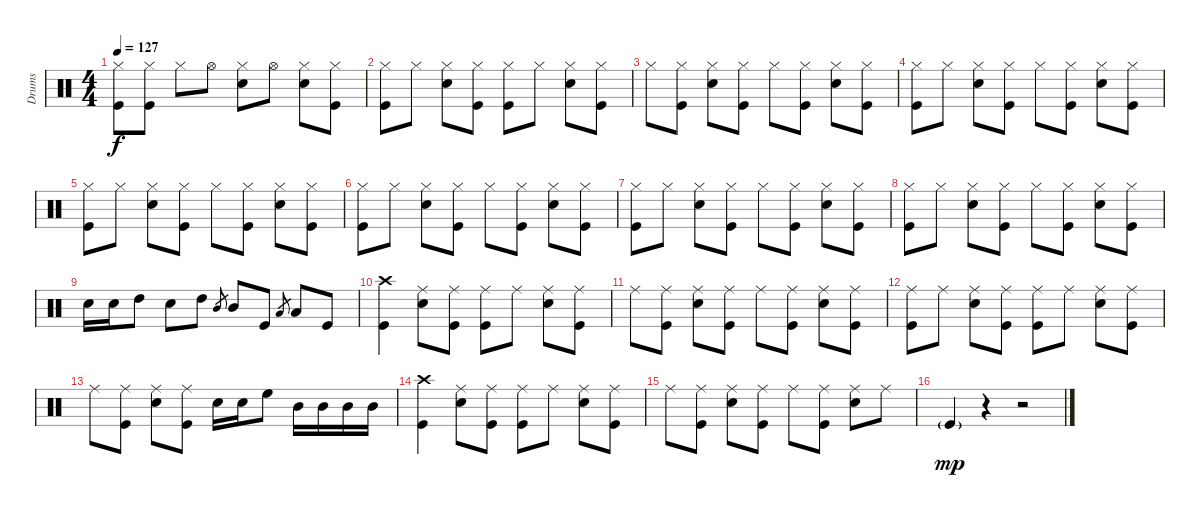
\track ("Drums" "Drums") {instrument percussion}
\staff {score}
\articulation defaults
\ts (4 4)
\tempo 127
\clef neutral
\ks c
("Kick (hit)" "Hi-Hat (closed)").8{dy f} ("Kick (hit)" "Hi-Hat (closed)").8 "Hi-Hat (closed)".8 "Hi-Hat (open)".8 ("Snare (hit) 2" "Hi-Hat (closed)").8 "Hi-Hat (open)".8 ("Snare (hit) 2" "Hi-Hat (closed)").8 ("Kick (hit)" "Hi-Hat (closed)").8 |
("Hi-Hat (closed)" "Kick (hit)").8 "Hi-Hat (closed)".8 ("Hi-Hat (closed)" "Snare (hit) 2").8 ("Hi-Hat (closed)" "Kick (hit)").8 ("Hi-Hat (closed)" "Kick (hit)").8 "Hi-Hat (closed)".8 ("Hi-Hat (closed)" "Snare (hit) 2").8 ("Hi-Hat (closed)" "Kick (hit)").8 |
"Hi-Hat (closed)".8 ("Kick (hit)" "Hi-Hat (closed)").8 ("Snare (hit) 2" "Hi-Hat (closed)").8 ("Kick (hit)" "Hi-Hat (closed)").8 "Hi-Hat (closed)".8 ("Kick (hit)" "Hi-Hat (closed)").8 ("Snare (hit) 2" "Hi-Hat (closed)").8 ("Kick (hit)" "Hi-Hat (closed)").8 |
("Hi-Hat (closed)" "Kick (hit)").8 "Hi-Hat (closed)".8 ("Hi-Hat (closed)" "Snare (hit) 2").8 ("Hi-Hat (closed)" "Kick (hit)").8 "Hi-Hat (closed)".8 ("Hi-Hat (closed)" "Kick (hit)").8 ("Hi-Hat (closed)" "Snare (hit) 2").8 ("Hi-Hat (closed)" "Kick (hit)").8 |
("Kick (hit)" "Hi-Hat (closed)").8 "Hi-Hat (closed)".8 ("Snare (hit) 2" "Hi-Hat (closed)").8 ("Kick (hit)" "Hi-Hat (closed)").8 "Hi-Hat (closed)".8 ("Kick (hit)" "Hi-Hat (closed)").8 ("Snare (hit) 2" "Hi-Hat (closed)").8 ("Kick (hit)" "Hi-Hat (closed)").8 |
("Hi-Hat (closed)" "Kick (hit)").8 "Hi-Hat (closed)".8 ("Hi-Hat (closed)" "Snare (hit) 2").8 ("Hi-Hat (closed)" "Kick (hit)").8 "Hi-Hat (closed)".8 ("Hi-Hat (closed)" "Kick (hit)").8 ("Hi-Hat (closed)" "Snare (hit) 2").8 ("Hi-Hat (closed)" "Kick (hit)").8 |
("Hi-Hat (closed)" "Kick (hit)").8 "Hi-Hat (closed)".8 ("Hi-Hat (closed)" "Snare (hit) 2").8 ("Hi-Hat (closed)" "Kick (hit)").8 "Hi-Hat (closed)".8 ("Hi-Hat (closed)" "Kick (hit)").8 ("Hi-Hat (closed)" "Snare (hit) 2").8 ("Hi-Hat (closed)" "Kick (hit)").8 |
("Kick (hit)" "Hi-Hat (closed)").8 "Hi-Hat (closed)".8 ("Snare (hit) 2" "Hi-Hat (closed)").8 ("Kick (hit)" "Hi-Hat (closed)").8 "Hi-Hat (closed)".8 ("Kick (hit)" "Hi-Hat (closed)").8 ("Snare (hit) 2" "Hi-Hat (closed)").8 ("Kick (hit)" "Hi-Hat (closed)").8 |
"Snare (hit) 2".16 "Snare (hit) 2".16 "High Tom (hit)".8 "Snare (hit) 2".8 "High Tom (hit)".8 "Mid Tom (hit)".8{gr} "Mid Tom (hit)".8 "Kick (hit)".8 "Low Tom (hit)".8{gr} "Low Tom (hit)".8 "Kick (hit)".8 |
("Crash high (hit)" "Kick (hit)").4 ("Ride (middle)" "Snare (hit) 2").8 ("Ride (middle)" "Kick (hit)").8 ("Ride (middle)" "Kick (hit)").8 "Ride (middle)".8 ("Ride (middle)" "Snare (hit) 2").8 ("Ride (middle)" "Kick (hit)").8 |
"Ride (middle)".8 ("Kick (hit)" "Ride (middle)").8 ("Snare (hit) 2" "Ride (middle)").8 ("Kick (hit)" "Ride (middle)").8 "Ride (middle)".8 ("Kick (hit)" "Ride (middle)").8 ("Snare (hit) 2" "Ride (middle)").8 ("Kick (hit)" "Ride (middle)").8 |
("Ride (middle)" "Kick (hit)").8 "Ride (middle)".8 ("Ride (middle)" "Snare (hit) 2").8 ("Ride (middle)" "Kick (hit)").8 ("Ride (middle)" "Kick (hit)").8 "Ride (middle)".8 ("Ride (middle)" "Snare (hit) 2").8 ("Ride (middle)" "Kick (hit)").8 |
"Ride (middle)".8 ("Kick (hit)" "Ride (middle)").8 ("Snare (hit) 2" "Ride (middle)").8 ("Kick (hit)" "Ride (middle)").8 "Snare (hit) 2".16 "Snare (hit) 2".16 "High Floor Tom (hit)".8 "Mid Tom (hit)".16 "Mid Tom (hit)".16 "Mid Tom (hit)".16 "Mid Tom (hit)".16 |
("Crash high (hit)" "Kick (hit)").4 ("Ride (middle)" "Snare (hit) 2").8 ("Ride (middle)" "Kick (hit)").8 ("Ride (middle)" "Kick (hit)").8 "Ride (middle)".8 ("Ride (middle)" "Snare (hit) 2").8 ("Ride (middle)" "Kick (hit)").8 |
"Ride (middle)".8 ("Ride (middle)" "Kick (hit)").8 ("Ride (middle)" "Snare (hit) 2").8 ("Ride (middle)" "Kick (hit)").8 "Ride (middle)".8 ("Ride (middle)" "Kick (hit)").8 ("Ride (middle)" "Snare (hit) 2").8 "Ride (middle)".8 |
"Kick (hit)"{g}.4{dy mp} r.4 r.2
